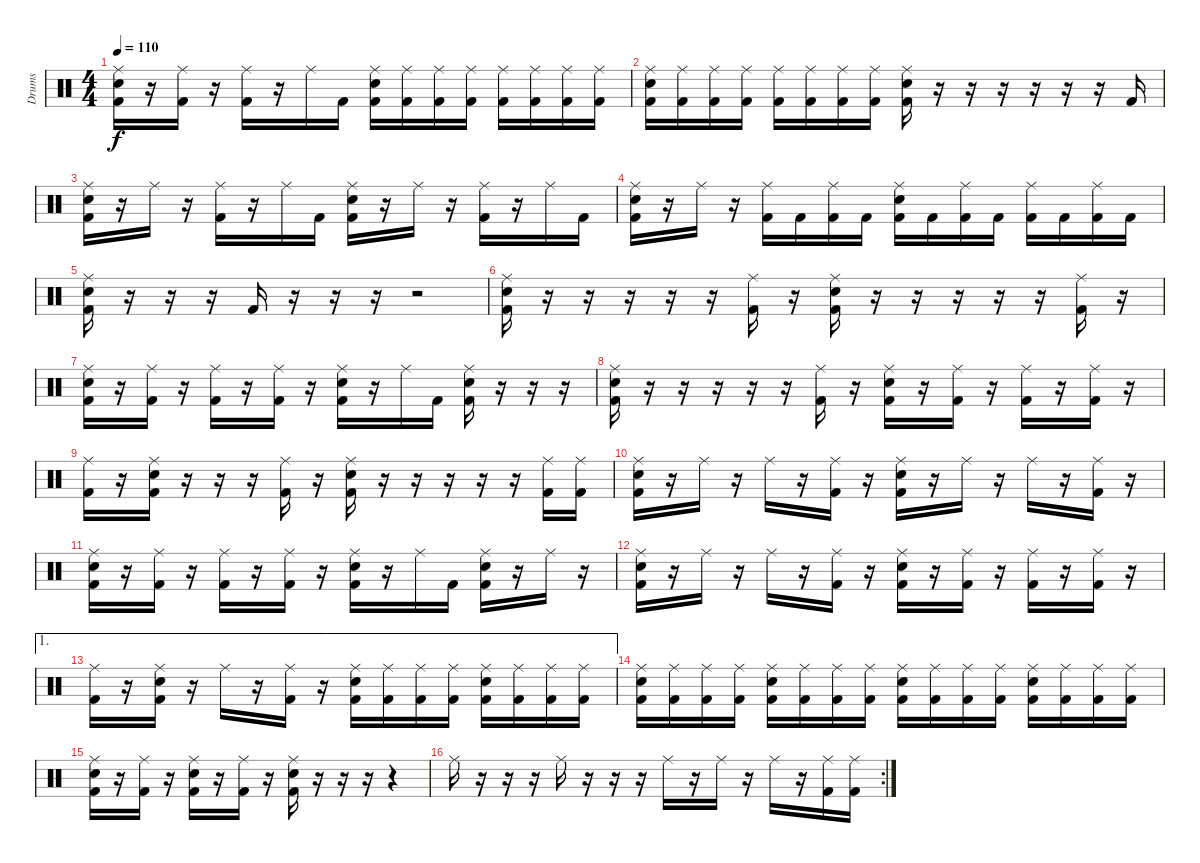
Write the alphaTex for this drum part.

\track ("Drums" "Drums") {instrument percussion}
\staff {score}
\articulation defaults
\ts (4 4)
\tempo 110
\clef neutral
\ks c
("Ride (middle)" "Electric Snare (hit)" "Kick (hit) 2").16{dy f} r.16 ("Ride (middle)" "Kick (hit) 2").16 r.16 ("Ride (middle)" "Kick (hit) 2").16 r.16 "Ride (middle)".16 "Kick (hit) 2".16 ("Ride (middle)" "Electric Snare (hit)" "Kick (hit) 2").16 ("Ride (middle)" "Kick (hit) 2").16 ("Ride (middle)" "Kick (hit) 2").16 ("Ride (middle)" "Kick (hit) 2").16 ("Ride (middle)" "Kick (hit) 2").16 ("Ride (middle)" "Kick (hit) 2").16 ("Ride (middle)" "Kick (hit) 2").16 ("Ride (middle)" "Kick (hit) 2").16 |
("Ride (middle)" "Electric Snare (hit)" "Kick (hit) 2").16 ("Ride (middle)" "Kick (hit) 2").16 ("Ride (middle)" "Kick (hit) 2").16 ("Ride (middle)" "Kick (hit) 2").16 ("Ride (middle)" "Kick (hit) 2").16 ("Ride (middle)" "Kick (hit) 2").16 ("Ride (middle)" "Kick (hit) 2").16 ("Ride (middle)" "Kick (hit) 2").16 ("Ride (middle)" "Electric Snare (hit)" "Kick (hit) 2").16 r.16 r.16 r.16 r.16 r.16 r.16 "Kick (hit) 2".16 |
("Ride (middle)" "Electric Snare (hit)" "Kick (hit) 2").16 r.16 "Ride (middle)".16 r.16 ("Ride (middle)" "Kick (hit) 2").16 r.16 "Ride (middle)".16 "Kick (hit) 2".16 ("Ride (middle)" "Electric Snare (hit)" "Kick (hit) 2").16 r.16 "Ride (middle)".16 r.16 ("Ride (middle)" "Kick (hit) 2").16 r.16 "Ride (middle)".16 "Kick (hit) 2".16 |
("Ride (middle)" "Electric Snare (hit)" "Kick (hit) 2").16 r.16 "Ride (middle)".16 r.16 ("Ride (middle)" "Kick (hit) 2").16 "Kick (hit) 2".16 ("Ride (middle)" "Kick (hit) 2").16 "Kick (hit) 2".16 ("Ride (middle)" "Electric Snare (hit)" "Kick (hit) 2").16 "Kick (hit) 2".16 ("Ride (middle)" "Kick (hit) 2").16 "Kick (hit) 2".16 ("Ride (middle)" "Kick (hit) 2").16 "Kick (hit) 2".16 ("Ride (middle)" "Kick (hit) 2").16 "Kick (hit) 2".16 |
("Ride (middle)" "Electric Snare (hit)" "Kick (hit) 2").16 r.16 r.16 r.16 "Kick (hit) 2".16 r.16 r.16 r.16 r.2 |
("Ride (middle)" "Electric Snare (hit)" "Kick (hit) 2").16 r.16 r.16 r.16 r.16 r.16 ("Ride (middle)" "Kick (hit) 2").16 r.16 ("Ride (middle)" "Electric Snare (hit)" "Kick (hit) 2").16 r.16 r.16 r.16 r.16 r.16 ("Ride (middle)" "Kick (hit) 2").16 r.16 |
("Ride (middle)" "Electric Snare (hit)" "Kick (hit) 2").16 r.16 ("Ride (middle)" "Kick (hit) 2").16 r.16 ("Ride (middle)" "Kick (hit) 2").16 r.16 ("Ride (middle)" "Kick (hit) 2").16 r.16 ("Ride (middle)" "Electric Snare (hit)" "Kick (hit) 2").16 r.16 "Ride (middle)".16 "Kick (hit) 2".16 ("Ride (middle)" "Electric Snare (hit)" "Kick (hit) 2").16 r.16 r.16 r.16 |
("Ride (middle)" "Electric Snare (hit)" "Kick (hit) 2").16 r.16 r.16 r.16 r.16 r.16 ("Ride (middle)" "Kick (hit) 2").16 r.16 ("Ride (middle)" "Electric Snare (hit)" "Kick (hit) 2").16 r.16 ("Ride (middle)" "Kick (hit) 2").16 r.16 ("Ride (middle)" "Kick (hit) 2").16 r.16 ("Ride (middle)" "Kick (hit) 2").16 r.16 |
("Ride (middle)" "Kick (hit) 2").16 r.16 ("Ride (middle)" "Electric Snare (hit)" "Kick (hit) 2").16 r.16 r.16 r.16 ("Ride (middle)" "Kick (hit) 2").16 r.16 ("Ride (middle)" "Electric Snare (hit)" "Kick (hit) 2").16 r.16 r.16 r.16 r.16 r.16 ("Ride (middle)" "Kick (hit) 2").16 ("Ride (middle)" "Kick (hit) 2").16 |
("Ride (middle)" "Electric Snare (hit)" "Kick (hit) 2").16 r.16 "Ride (middle)".16 r.16 "Ride (middle)".16 r.16 ("Ride (middle)" "Kick (hit) 2").16 r.16 ("Ride (middle)" "Electric Snare (hit)" "Kick (hit) 2").16 r.16 "Ride (middle)".16 r.16 "Ride (middle)".16 r.16 ("Ride (middle)" "Kick (hit) 2").16 r.16 |
("Ride (middle)" "Electric Snare (hit)" "Kick (hit) 2").16 r.16 ("Ride (middle)" "Kick (hit) 2").16 r.16 ("Ride (middle)" "Kick (hit) 2").16 r.16 ("Ride (middle)" "Kick (hit) 2").16 r.16 ("Ride (middle)" "Electric Snare (hit)" "Kick (hit) 2").16 r.16 "Ride (middle)".16 "Kick (hit) 2".16 ("Ride (middle)" "Electric Snare (hit)" "Kick (hit) 2").16 r.16 "Ride (middle)".16 r.16 |
("Ride (middle)" "Electric Snare (hit)" "Kick (hit) 2").16 r.16 "Ride (middle)".16 r.16 "Ride (middle)".16 r.16 ("Ride (middle)" "Kick (hit) 2").16 r.16 ("Ride (middle)" "Electric Snare (hit)" "Kick (hit) 2").16 r.16 ("Ride (middle)" "Kick (hit) 2").16 r.16 ("Ride (middle)" "Kick (hit) 2").16 r.16 ("Ride (middle)" "Kick (hit) 2").16 r.16 |
\ae 1
("Ride (middle)" "Kick (hit) 2").16 r.16 ("Ride (middle)" "Electric Snare (hit)" "Kick (hit) 2").16 r.16 "Ride (middle)".16 r.16 ("Ride (middle)" "Kick (hit) 2").16 r.16 ("Ride (middle)" "Electric Snare (hit)" "Kick (hit) 2").16 ("Ride (middle)" "Kick (hit) 2").16 ("Ride (middle)" "Kick (hit) 2").16 ("Ride (middle)" "Kick (hit) 2").16 ("Ride (middle)" "Electric Snare (hit)" "Kick (hit) 2").16 ("Ride (middle)" "Kick (hit) 2").16 ("Ride (middle)" "Kick (hit) 2").16 ("Ride (middle)" "Kick (hit) 2").16 |
("Ride (middle)" "Electric Snare (hit)" "Kick (hit) 2").16 ("Ride (middle)" "Kick (hit) 2").16 ("Ride (middle)" "Kick (hit) 2").16 ("Ride (middle)" "Kick (hit) 2").16 ("Ride (middle)" "Electric Snare (hit)" "Kick (hit) 2").16 ("Ride (middle)" "Kick (hit) 2").16 ("Ride (middle)" "Kick (hit) 2").16 ("Ride (middle)" "Kick (hit) 2").16 ("Ride (middle)" "Electric Snare (hit)" "Kick (hit) 2").16 ("Ride (middle)" "Kick (hit) 2").16 ("Ride (middle)" "Kick (hit) 2").16 ("Ride (middle)" "Kick (hit) 2").16 ("Ride (middle)" "Electric Snare (hit)" "Kick (hit) 2").16 ("Ride (middle)" "Kick (hit) 2").16 ("Ride (middle)" "Kick (hit) 2").16 ("Ride (middle)" "Kick (hit) 2").16 |
("Ride (middle)" "Electric Snare (hit)" "Kick (hit) 2").16 r.16 ("Ride (middle)" "Kick (hit) 2").16 r.16 ("Ride (middle)" "Electric Snare (hit)" "Kick (hit) 2").16 r.16 ("Ride (middle)" "Kick (hit) 2").16 r.16 ("Ride (middle)" "Electric Snare (hit)" "Kick (hit) 2").16 r.16 r.16 r.16 r.4 |
\rc 2 "Ride (middle)".16
r.16 r.16 r.16 "Ride (middle)".16 r.16 r.16 r.16 "Ride (middle)".16 r.16 "Ride (middle)".16 r.16 "Ride (middle)".16 r.16 ("Ride (middle)" "Kick (hit) 2").16 ("Ride (middle)" "Kick (hit) 2").16
